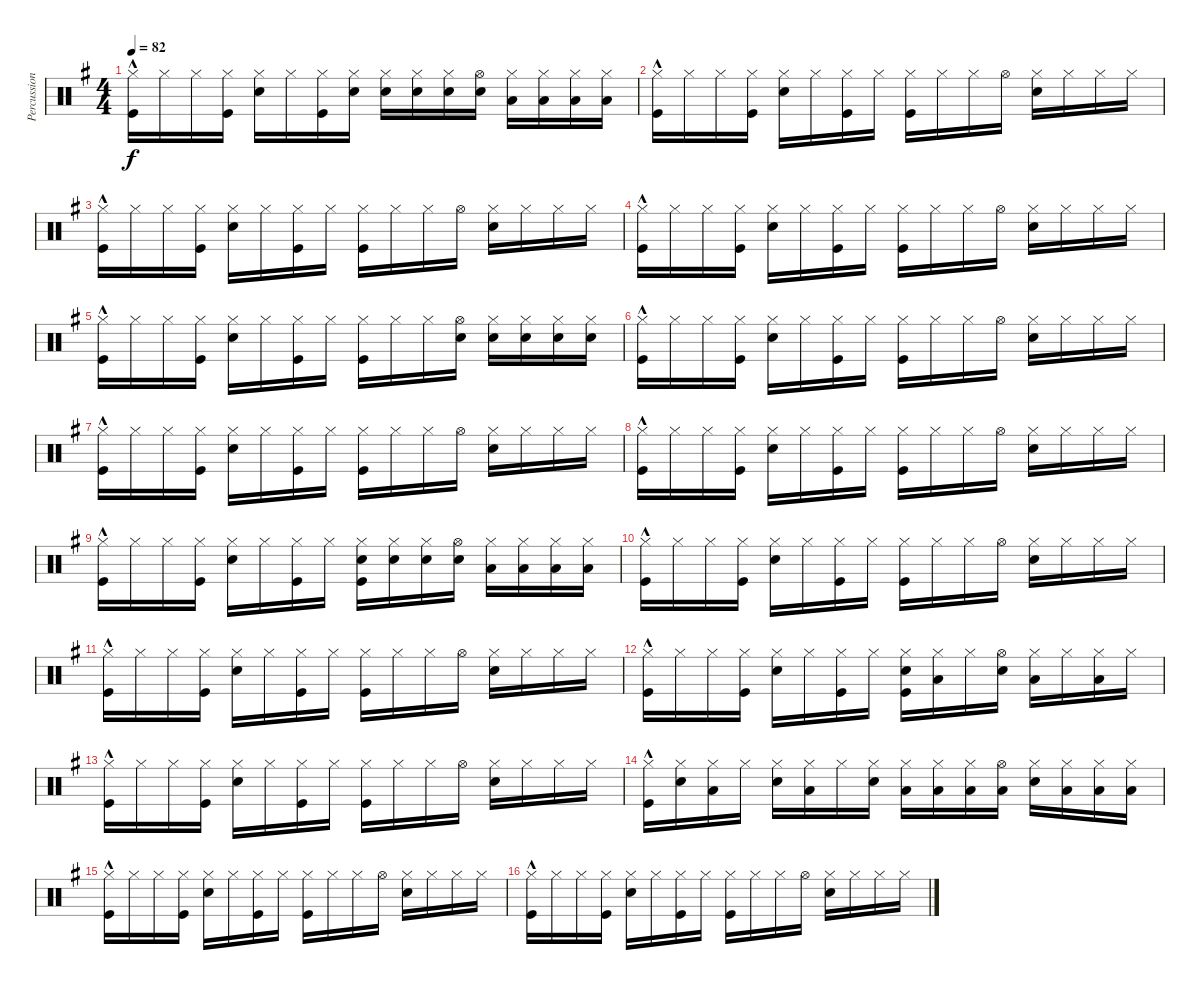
\track ("Percussions" "Percussion") {instrument percussion}
\staff {score}
\articulation defaults
\ts (4 4)
\tempo 82
\clef neutral
\ks g
("Hi-Hat (closed)" "Kick (hit)"{hac}).16{dy f} "Hi-Hat (closed)".16 "Hi-Hat (closed)".16 ("Hi-Hat (closed)" "Kick (hit)").16 ("Hi-Hat (closed)" "Snare (hit) 2").16 "Hi-Hat (closed)".16 ("Hi-Hat (closed)" "Kick (hit)").16 ("Hi-Hat (closed)" "Electric Snare (hit)").16 ("Hi-Hat (closed)" "Electric Snare (hit)").16 ("Hi-Hat (closed)" "Electric Snare (hit)").16 ("Hi-Hat (closed)" "Electric Snare (hit)").16 ("Hi-Hat (open)" "Electric Snare (hit)").16 ("Hi-Hat (closed)" "Low Tom (hit)").16 ("Hi-Hat (closed)" "Low Tom (hit)").16 ("Hi-Hat (closed)" "Low Floor Tom (hit)").16 ("Hi-Hat (closed)" "Low Floor Tom (hit)").16 |
("Hi-Hat (closed)" "Kick (hit)"{hac}).16 "Hi-Hat (closed)".16 "Hi-Hat (closed)".16 ("Hi-Hat (closed)" "Kick (hit)").16 ("Hi-Hat (closed)" "Snare (hit) 2").16 "Hi-Hat (closed)".16 ("Hi-Hat (closed)" "Kick (hit)").16 "Hi-Hat (closed)".16 ("Hi-Hat (closed)" "Kick (hit)").16 "Hi-Hat (closed)".16 "Hi-Hat (closed)".16 "Hi-Hat (open)".16 ("Hi-Hat (closed)" "Snare (hit) 2").16 "Hi-Hat (closed)".16 "Hi-Hat (closed)".16 "Hi-Hat (closed)".16 |
("Hi-Hat (closed)" "Kick (hit)"{hac}).16 "Hi-Hat (closed)".16 "Hi-Hat (closed)".16 ("Hi-Hat (closed)" "Kick (hit)").16 ("Hi-Hat (closed)" "Snare (hit) 2").16 "Hi-Hat (closed)".16 ("Hi-Hat (closed)" "Kick (hit)").16 "Hi-Hat (closed)".16 ("Hi-Hat (closed)" "Kick (hit)").16 "Hi-Hat (closed)".16 "Hi-Hat (closed)".16 "Hi-Hat (open)".16 ("Hi-Hat (closed)" "Snare (hit) 2").16 "Hi-Hat (closed)".16 "Hi-Hat (closed)".16 "Hi-Hat (closed)".16 |
("Hi-Hat (closed)" "Kick (hit)"{hac}).16 "Hi-Hat (closed)".16 "Hi-Hat (closed)".16 ("Hi-Hat (closed)" "Kick (hit)").16 ("Hi-Hat (closed)" "Snare (hit) 2").16 "Hi-Hat (closed)".16 ("Hi-Hat (closed)" "Kick (hit)").16 "Hi-Hat (closed)".16 ("Hi-Hat (closed)" "Kick (hit)").16 "Hi-Hat (closed)".16 "Hi-Hat (closed)".16 "Hi-Hat (open)".16 ("Hi-Hat (closed)" "Snare (hit) 2").16 "Hi-Hat (closed)".16 "Hi-Hat (closed)".16 "Hi-Hat (closed)".16 |
("Hi-Hat (closed)" "Kick (hit)"{hac}).16 "Hi-Hat (closed)".16 "Hi-Hat (closed)".16 ("Hi-Hat (closed)" "Kick (hit)").16 ("Hi-Hat (closed)" "Snare (hit) 2").16 "Hi-Hat (closed)".16 ("Hi-Hat (closed)" "Kick (hit)").16 "Hi-Hat (closed)".16 ("Hi-Hat (closed)" "Kick (hit)").16 "Hi-Hat (closed)".16 "Hi-Hat (closed)".16 ("Hi-Hat (open)" "Snare (hit) 2").16 ("Hi-Hat (closed)" "Snare (hit) 2").16 ("Hi-Hat (closed)" "Snare (hit) 2").16 ("Hi-Hat (closed)" "Snare (hit) 2").16 ("Hi-Hat (closed)" "Snare (hit) 2").16 |
("Hi-Hat (closed)" "Kick (hit)"{hac}).16 "Hi-Hat (closed)".16 "Hi-Hat (closed)".16 ("Hi-Hat (closed)" "Kick (hit)").16 ("Hi-Hat (closed)" "Snare (hit) 2").16 "Hi-Hat (closed)".16 ("Hi-Hat (closed)" "Kick (hit)").16 "Hi-Hat (closed)".16 ("Hi-Hat (closed)" "Kick (hit)").16 "Hi-Hat (closed)".16 "Hi-Hat (closed)".16 "Hi-Hat (open)".16 ("Hi-Hat (closed)" "Snare (hit) 2").16 "Hi-Hat (closed)".16 "Hi-Hat (closed)".16 "Hi-Hat (closed)".16 |
("Hi-Hat (closed)" "Kick (hit)"{hac}).16 "Hi-Hat (closed)".16 "Hi-Hat (closed)".16 ("Hi-Hat (closed)" "Kick (hit)").16 ("Hi-Hat (closed)" "Snare (hit) 2").16 "Hi-Hat (closed)".16 ("Hi-Hat (closed)" "Kick (hit)").16 "Hi-Hat (closed)".16 ("Hi-Hat (closed)" "Kick (hit)").16 "Hi-Hat (closed)".16 "Hi-Hat (closed)".16 "Hi-Hat (open)".16 ("Hi-Hat (closed)" "Snare (hit) 2").16 "Hi-Hat (closed)".16 "Hi-Hat (closed)".16 "Hi-Hat (closed)".16 |
("Hi-Hat (closed)" "Kick (hit)"{hac}).16 "Hi-Hat (closed)".16 "Hi-Hat (closed)".16 ("Hi-Hat (closed)" "Kick (hit)").16 ("Hi-Hat (closed)" "Snare (hit) 2").16 "Hi-Hat (closed)".16 ("Hi-Hat (closed)" "Kick (hit)").16 "Hi-Hat (closed)".16 ("Hi-Hat (closed)" "Kick (hit)").16 "Hi-Hat (closed)".16 "Hi-Hat (closed)".16 "Hi-Hat (open)".16 ("Hi-Hat (closed)" "Snare (hit) 2").16 "Hi-Hat (closed)".16 "Hi-Hat (closed)".16 "Hi-Hat (closed)".16 |
("Hi-Hat (closed)" "Kick (hit)"{hac}).16 "Hi-Hat (closed)".16 "Hi-Hat (closed)".16 ("Hi-Hat (closed)" "Kick (hit)").16 ("Hi-Hat (closed)" "Snare (hit) 2").16 "Hi-Hat (closed)".16 ("Hi-Hat (closed)" "Kick (hit)").16 "Hi-Hat (closed)".16 ("Hi-Hat (closed)" "Electric Snare (hit)" "Kick (hit)").16 ("Hi-Hat (closed)" "Electric Snare (hit)").16 ("Hi-Hat (closed)" "Electric Snare (hit)").16 ("Hi-Hat (open)" "Electric Snare (hit)").16 ("Hi-Hat (closed)" "Low Tom (hit)").16 ("Hi-Hat (closed)" "Low Tom (hit)").16 ("Hi-Hat (closed)" "Low Floor Tom (hit)").16 ("Hi-Hat (closed)" "Low Floor Tom (hit)").16 |
("Hi-Hat (closed)" "Kick (hit)"{hac}).16 "Hi-Hat (closed)".16 "Hi-Hat (closed)".16 ("Hi-Hat (closed)" "Kick (hit)").16 ("Hi-Hat (closed)" "Snare (hit) 2").16 "Hi-Hat (closed)".16 ("Hi-Hat (closed)" "Kick (hit)").16 "Hi-Hat (closed)".16 ("Hi-Hat (closed)" "Kick (hit)").16 "Hi-Hat (closed)".16 "Hi-Hat (closed)".16 "Hi-Hat (open)".16 ("Hi-Hat (closed)" "Snare (hit) 2").16 "Hi-Hat (closed)".16 "Hi-Hat (closed)".16 "Hi-Hat (closed)".16 |
("Hi-Hat (closed)" "Kick (hit)"{hac}).16 "Hi-Hat (closed)".16 "Hi-Hat (closed)".16 ("Hi-Hat (closed)" "Kick (hit)").16 ("Hi-Hat (closed)" "Snare (hit) 2").16 "Hi-Hat (closed)".16 ("Hi-Hat (closed)" "Kick (hit)").16 "Hi-Hat (closed)".16 ("Hi-Hat (closed)" "Kick (hit)").16 "Hi-Hat (closed)".16 "Hi-Hat (closed)".16 "Hi-Hat (open)".16 ("Hi-Hat (closed)" "Snare (hit) 2").16 "Hi-Hat (closed)".16 "Hi-Hat (closed)".16 "Hi-Hat (closed)".16 |
("Hi-Hat (closed)" "Kick (hit)"{hac}).16 "Hi-Hat (closed)".16 "Hi-Hat (closed)".16 ("Hi-Hat (closed)" "Kick (hit)").16 ("Hi-Hat (closed)" "Snare (hit) 2").16 "Hi-Hat (closed)".16 ("Hi-Hat (closed)" "Kick (hit)").16 "Hi-Hat (closed)".16 ("Hi-Hat (closed)" "Electric Snare (hit)" "Kick (hit)").16 ("Hi-Hat (closed)" "Low Tom (hit)").16 "Hi-Hat (closed)".16 ("Hi-Hat (open)" "Electric Snare (hit)").16 ("Hi-Hat (closed)" "Low Tom (hit)").16 "Hi-Hat (closed)".16 ("Hi-Hat (closed)" "Low Floor Tom (hit)").16 "Hi-Hat (closed)".16 |
("Hi-Hat (closed)" "Kick (hit)"{hac}).16 "Hi-Hat (closed)".16 "Hi-Hat (closed)".16 ("Hi-Hat (closed)" "Kick (hit)").16 ("Hi-Hat (closed)" "Snare (hit) 2").16 "Hi-Hat (closed)".16 ("Hi-Hat (closed)" "Kick (hit)").16 "Hi-Hat (closed)".16 ("Hi-Hat (closed)" "Kick (hit)").16 "Hi-Hat (closed)".16 "Hi-Hat (closed)".16 "Hi-Hat (open)".16 ("Hi-Hat (closed)" "Snare (hit) 2").16 "Hi-Hat (closed)".16 "Hi-Hat (closed)".16 "Hi-Hat (closed)".16 |
("Hi-Hat (closed)" "Kick (hit)"{hac}).16 ("Hi-Hat (closed)" "Electric Snare (hit)").16 ("Hi-Hat (closed)" "Low Tom (hit)").16 "Hi-Hat (closed)".16 ("Hi-Hat (closed)" "Electric Snare (hit)").16 ("Hi-Hat (closed)" "Low Tom (hit)").16 "Hi-Hat (closed)".16 ("Hi-Hat (closed)" "Electric Snare (hit)").16 ("Hi-Hat (closed)" "Low Tom (hit)").16 ("Hi-Hat (closed)" "Low Floor Tom (hit)").16 ("Hi-Hat (closed)" "Low Floor Tom (hit)").16 ("Hi-Hat (open)" "Low Tom (hit)").16 ("Hi-Hat (closed)" "Electric Snare (hit)").16 ("Hi-Hat (closed)" "Low Tom (hit)").16 ("Hi-Hat (closed)" "Low Floor Tom (hit)").16 ("Hi-Hat (closed)" "Low Floor Tom (hit)").16 |
("Hi-Hat (closed)" "Kick (hit)"{hac}).16 "Hi-Hat (closed)".16 "Hi-Hat (closed)".16 ("Hi-Hat (closed)" "Kick (hit)").16 ("Hi-Hat (closed)" "Snare (hit) 2").16 "Hi-Hat (closed)".16 ("Hi-Hat (closed)" "Kick (hit)").16 "Hi-Hat (closed)".16 ("Hi-Hat (closed)" "Kick (hit)").16 "Hi-Hat (closed)".16 "Hi-Hat (closed)".16 "Hi-Hat (open)".16 ("Hi-Hat (closed)" "Snare (hit) 2").16 "Hi-Hat (closed)".16 "Hi-Hat (closed)".16 "Hi-Hat (closed)".16 |
("Hi-Hat (closed)" "Kick (hit)"{hac}).16 "Hi-Hat (closed)".16 "Hi-Hat (closed)".16 ("Hi-Hat (closed)" "Kick (hit)").16 ("Hi-Hat (closed)" "Snare (hit) 2").16 "Hi-Hat (closed)".16 ("Hi-Hat (closed)" "Kick (hit)").16 "Hi-Hat (closed)".16 ("Hi-Hat (closed)" "Kick (hit)").16 "Hi-Hat (closed)".16 "Hi-Hat (closed)".16 "Hi-Hat (open)".16 ("Hi-Hat (closed)" "Snare (hit) 2").16 "Hi-Hat (closed)".16 "Hi-Hat (closed)".16 "Hi-Hat (closed)".16
